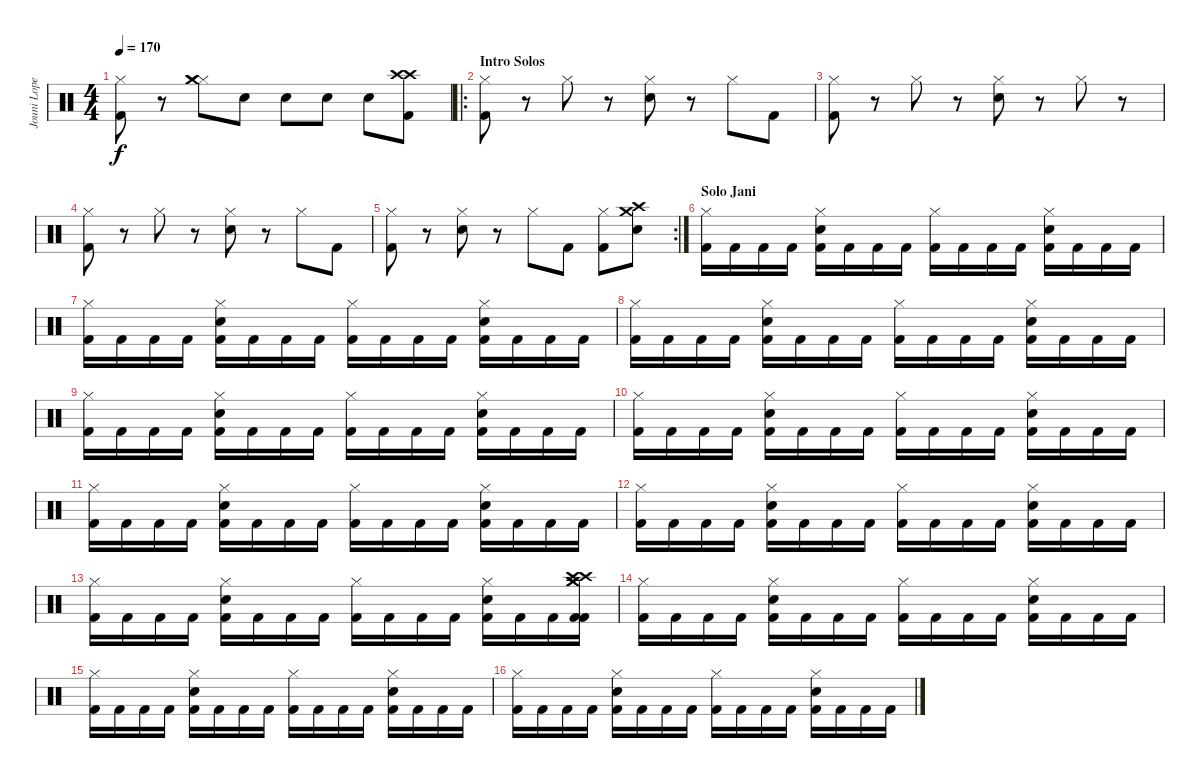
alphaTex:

\track ("Jouni Lopez (Bateria) 17 años" "Jouni Lope") {instrument percussion}
\staff {score}
\articulation defaults
\ts (4 4)
\tempo 170
\clef neutral
\ks c
("Hi-Hat (closed)" "Kick (hit) 2").8{dy f} r.8 ("Hi-Hat (closed)" "Crash medium (hit)" "Crash medium (hit)").8 "Snare (hit) 2".8 "Snare (hit) 2".8 "Snare (hit) 2".8 "Snare (hit) 2".8 ("Kick (hit) 2" "Crash high (hit)" "Crash high (hit)").8 |
\ro
\section ("" "Intro Solos")
("Hi-Hat (closed)" "Kick (hit) 2").8 r.8 "Hi-Hat (closed)".8 r.8 ("Hi-Hat (closed)" "Snare (hit) 2").8 r.8 "Hi-Hat (closed)".8 "Kick (hit) 2".8 |
("Hi-Hat (closed)" "Kick (hit) 2").8 r.8 "Hi-Hat (closed)".8 r.8 ("Hi-Hat (closed)" "Snare (hit) 2").8 r.8 "Hi-Hat (closed)".8 r.8 |
("Hi-Hat (closed)" "Kick (hit) 2").8 r.8 "Hi-Hat (closed)".8 r.8 ("Hi-Hat (closed)" "Snare (hit) 2").8 r.8 "Hi-Hat (closed)".8 "Kick (hit) 2".8 |
\rc 2
("Hi-Hat (closed)" "Kick (hit) 2").8 r.8 ("Hi-Hat (closed)" "Snare (hit) 2").8 r.8 "Hi-Hat (closed)".8 "Kick (hit) 2".8 ("Hi-Hat (closed)" "Kick (hit) 2").8 ("Crash medium (hit)" "Crash high (hit)" "Snare (hit) 2").8 |
\section ("" "Solo Jani")
("Kick (hit) 2" "Hi-Hat (closed)").16 "Kick (hit) 2".16 "Kick (hit) 2".16 "Kick (hit) 2".16 ("Kick (hit) 2" "Snare (hit) 2" "Hi-Hat (closed)").16 "Kick (hit) 2".16 "Kick (hit) 2".16 "Kick (hit) 2".16 ("Kick (hit) 2" "Hi-Hat (closed)").16 "Kick (hit) 2".16 "Kick (hit) 2".16 "Kick (hit) 2".16 ("Kick (hit) 2" "Snare (hit) 2" "Hi-Hat (closed)").16 "Kick (hit) 2".16 "Kick (hit) 2".16 "Kick (hit) 2".16 |
("Kick (hit) 2" "Hi-Hat (closed)").16 "Kick (hit) 2".16 "Kick (hit) 2".16 "Kick (hit) 2".16 ("Kick (hit) 2" "Snare (hit) 2" "Hi-Hat (closed)").16 "Kick (hit) 2".16 "Kick (hit) 2".16 "Kick (hit) 2".16 ("Kick (hit) 2" "Hi-Hat (closed)").16 "Kick (hit) 2".16 "Kick (hit) 2".16 "Kick (hit) 2".16 ("Kick (hit) 2" "Snare (hit) 2" "Hi-Hat (closed)").16 "Kick (hit) 2".16 "Kick (hit) 2".16 "Kick (hit) 2".16 |
("Kick (hit) 2" "Hi-Hat (closed)").16 "Kick (hit) 2".16 "Kick (hit) 2".16 "Kick (hit) 2".16 ("Kick (hit) 2" "Snare (hit) 2" "Hi-Hat (closed)").16 "Kick (hit) 2".16 "Kick (hit) 2".16 "Kick (hit) 2".16 ("Kick (hit) 2" "Hi-Hat (closed)").16 "Kick (hit) 2".16 "Kick (hit) 2".16 "Kick (hit) 2".16 ("Kick (hit) 2" "Snare (hit) 2" "Hi-Hat (closed)").16 "Kick (hit) 2".16 "Kick (hit) 2".16 "Kick (hit) 2".16 |
("Kick (hit) 2" "Hi-Hat (closed)").16 "Kick (hit) 2".16 "Kick (hit) 2".16 "Kick (hit) 2".16 ("Kick (hit) 2" "Snare (hit) 2" "Hi-Hat (closed)").16 "Kick (hit) 2".16 "Kick (hit) 2".16 "Kick (hit) 2".16 ("Kick (hit) 2" "Hi-Hat (closed)").16 "Kick (hit) 2".16 "Kick (hit) 2".16 "Kick (hit) 2".16 ("Kick (hit) 2" "Snare (hit) 2" "Hi-Hat (closed)").16 "Kick (hit) 2".16 "Kick (hit) 2".16 "Kick (hit) 2".16 |
("Kick (hit) 2" "Hi-Hat (closed)").16 "Kick (hit) 2".16 "Kick (hit) 2".16 "Kick (hit) 2".16 ("Kick (hit) 2" "Snare (hit) 2" "Hi-Hat (closed)").16 "Kick (hit) 2".16 "Kick (hit) 2".16 "Kick (hit) 2".16 ("Kick (hit) 2" "Hi-Hat (closed)").16 "Kick (hit) 2".16 "Kick (hit) 2".16 "Kick (hit) 2".16 ("Kick (hit) 2" "Snare (hit) 2" "Hi-Hat (closed)").16 "Kick (hit) 2".16 "Kick (hit) 2".16 "Kick (hit) 2".16 |
("Kick (hit) 2" "Hi-Hat (closed)").16 "Kick (hit) 2".16 "Kick (hit) 2".16 "Kick (hit) 2".16 ("Kick (hit) 2" "Snare (hit) 2" "Hi-Hat (closed)").16 "Kick (hit) 2".16 "Kick (hit) 2".16 "Kick (hit) 2".16 ("Kick (hit) 2" "Hi-Hat (closed)").16 "Kick (hit) 2".16 "Kick (hit) 2".16 "Kick (hit) 2".16 ("Kick (hit) 2" "Snare (hit) 2" "Hi-Hat (closed)").16 "Kick (hit) 2".16 "Kick (hit) 2".16 "Kick (hit) 2".16 |
("Kick (hit) 2" "Hi-Hat (closed)").16 "Kick (hit) 2".16 "Kick (hit) 2".16 "Kick (hit) 2".16 ("Kick (hit) 2" "Snare (hit) 2" "Hi-Hat (closed)").16 "Kick (hit) 2".16 "Kick (hit) 2".16 "Kick (hit) 2".16 ("Kick (hit) 2" "Hi-Hat (closed)").16 "Kick (hit) 2".16 "Kick (hit) 2".16 "Kick (hit) 2".16 ("Kick (hit) 2" "Snare (hit) 2" "Hi-Hat (closed)").16 "Kick (hit) 2".16 "Kick (hit) 2".16 "Kick (hit) 2".16 |
("Kick (hit) 2" "Hi-Hat (closed)").16 "Kick (hit) 2".16 "Kick (hit) 2".16 "Kick (hit) 2".16 ("Kick (hit) 2" "Snare (hit) 2" "Hi-Hat (closed)").16 "Kick (hit) 2".16 "Kick (hit) 2".16 "Kick (hit) 2".16 ("Kick (hit) 2" "Hi-Hat (closed)").16 "Kick (hit) 2".16 "Kick (hit) 2".16 "Kick (hit) 2".16 ("Kick (hit) 2" "Snare (hit) 2" "Hi-Hat (closed)").16 "Kick (hit) 2".16 "Kick (hit) 2".16 ("Kick (hit) 2" "Crash medium (hit)" "Crash high (hit)" "Kick (hit) 2" "Crash medium (hit)" "Crash high (hit)").16 |
("Kick (hit) 2" "Hi-Hat (closed)").16 "Kick (hit) 2".16 "Kick (hit) 2".16 "Kick (hit) 2".16 ("Kick (hit) 2" "Snare (hit) 2" "Hi-Hat (closed)").16 "Kick (hit) 2".16 "Kick (hit) 2".16 "Kick (hit) 2".16 ("Kick (hit) 2" "Hi-Hat (closed)").16 "Kick (hit) 2".16 "Kick (hit) 2".16 "Kick (hit) 2".16 ("Kick (hit) 2" "Snare (hit) 2" "Hi-Hat (closed)").16 "Kick (hit) 2".16 "Kick (hit) 2".16 "Kick (hit) 2".16 |
("Kick (hit) 2" "Hi-Hat (closed)").16 "Kick (hit) 2".16 "Kick (hit) 2".16 "Kick (hit) 2".16 ("Kick (hit) 2" "Snare (hit) 2" "Hi-Hat (closed)").16 "Kick (hit) 2".16 "Kick (hit) 2".16 "Kick (hit) 2".16 ("Kick (hit) 2" "Hi-Hat (closed)").16 "Kick (hit) 2".16 "Kick (hit) 2".16 "Kick (hit) 2".16 ("Kick (hit) 2" "Snare (hit) 2" "Hi-Hat (closed)").16 "Kick (hit) 2".16 "Kick (hit) 2".16 "Kick (hit) 2".16 |
("Kick (hit) 2" "Hi-Hat (closed)").16 "Kick (hit) 2".16 "Kick (hit) 2".16 "Kick (hit) 2".16 ("Kick (hit) 2" "Snare (hit) 2" "Hi-Hat (closed)").16 "Kick (hit) 2".16 "Kick (hit) 2".16 "Kick (hit) 2".16 ("Kick (hit) 2" "Hi-Hat (closed)").16 "Kick (hit) 2".16 "Kick (hit) 2".16 "Kick (hit) 2".16 ("Kick (hit) 2" "Snare (hit) 2" "Hi-Hat (closed)").16 "Kick (hit) 2".16 "Kick (hit) 2".16 "Kick (hit) 2".16
